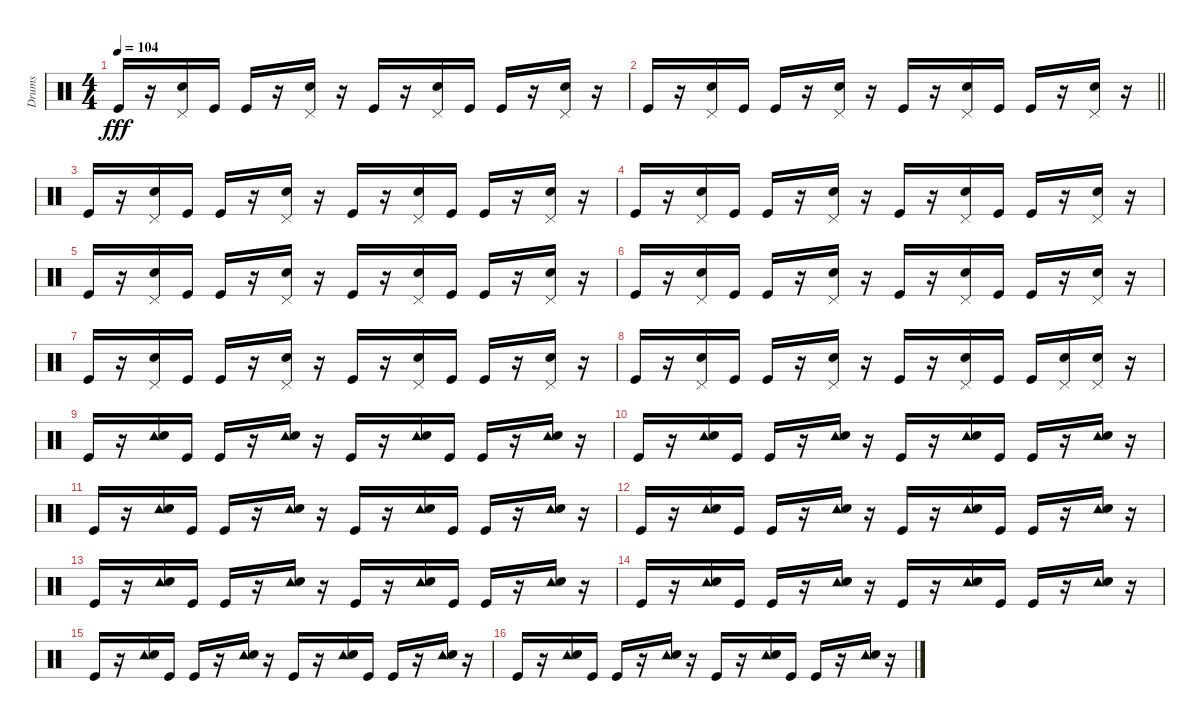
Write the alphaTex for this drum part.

\track ("Drums" "Drums") {instrument percussion}
\staff {score}
\articulation defaults
\ts (4 4)
\tempo 104
\clef neutral
\ks c "Kick (hit)".16{dy fff}
r.16 ("Pedal Hi-Hat (hit)" "Electric Snare (hit)").16 "Kick (hit)".16 "Kick (hit)".16 r.16 ("Pedal Hi-Hat (hit)" "Electric Snare (hit)").16 r.16 "Kick (hit)".16 r.16 ("Pedal Hi-Hat (hit)" "Electric Snare (hit)").16 "Kick (hit)".16 "Kick (hit)".16 r.16 ("Pedal Hi-Hat (hit)" "Electric Snare (hit)").16 r.16 |
\barLineRight lightlight "Kick (hit)".16
r.16 ("Pedal Hi-Hat (hit)" "Electric Snare (hit)").16 "Kick (hit)".16 "Kick (hit)".16 r.16 ("Pedal Hi-Hat (hit)" "Electric Snare (hit)").16 r.16 "Kick (hit)".16 r.16 ("Pedal Hi-Hat (hit)" "Electric Snare (hit)").16 "Kick (hit)".16 "Kick (hit)".16 r.16 ("Pedal Hi-Hat (hit)" "Electric Snare (hit)").16 r.16 |
"Kick (hit)".16 r.16 ("Pedal Hi-Hat (hit)" "Electric Snare (hit)").16 "Kick (hit)".16 "Kick (hit)".16 r.16 ("Pedal Hi-Hat (hit)" "Electric Snare (hit)").16 r.16 "Kick (hit)".16 r.16 ("Pedal Hi-Hat (hit)" "Electric Snare (hit)").16 "Kick (hit)".16 "Kick (hit)".16 r.16 ("Pedal Hi-Hat (hit)" "Electric Snare (hit)").16 r.16 |
"Kick (hit)".16 r.16 ("Pedal Hi-Hat (hit)" "Electric Snare (hit)").16 "Kick (hit)".16 "Kick (hit)".16 r.16 ("Pedal Hi-Hat (hit)" "Electric Snare (hit)").16 r.16 "Kick (hit)".16 r.16 ("Pedal Hi-Hat (hit)" "Electric Snare (hit)").16 "Kick (hit)".16 "Kick (hit)".16 r.16 ("Pedal Hi-Hat (hit)" "Electric Snare (hit)").16 r.16 |
"Kick (hit)".16 r.16 ("Pedal Hi-Hat (hit)" "Electric Snare (hit)").16 "Kick (hit)".16 "Kick (hit)".16 r.16 ("Pedal Hi-Hat (hit)" "Electric Snare (hit)").16 r.16 "Kick (hit)".16 r.16 ("Pedal Hi-Hat (hit)" "Electric Snare (hit)").16 "Kick (hit)".16 "Kick (hit)".16 r.16 ("Pedal Hi-Hat (hit)" "Electric Snare (hit)").16 r.16 |
"Kick (hit)".16 r.16 ("Pedal Hi-Hat (hit)" "Electric Snare (hit)").16 "Kick (hit)".16 "Kick (hit)".16 r.16 ("Pedal Hi-Hat (hit)" "Electric Snare (hit)").16 r.16 "Kick (hit)".16 r.16 ("Pedal Hi-Hat (hit)" "Electric Snare (hit)").16 "Kick (hit)".16 "Kick (hit)".16 r.16 ("Pedal Hi-Hat (hit)" "Electric Snare (hit)").16 r.16 |
"Kick (hit)".16 r.16 ("Pedal Hi-Hat (hit)" "Electric Snare (hit)").16 "Kick (hit)".16 "Kick (hit)".16 r.16 ("Pedal Hi-Hat (hit)" "Electric Snare (hit)").16 r.16 "Kick (hit)".16 r.16 ("Pedal Hi-Hat (hit)" "Electric Snare (hit)").16 "Kick (hit)".16 "Kick (hit)".16 r.16 ("Pedal Hi-Hat (hit)" "Electric Snare (hit)").16 r.16 |
"Kick (hit)".16 r.16 ("Pedal Hi-Hat (hit)" "Electric Snare (hit)").16 "Kick (hit)".16 "Kick (hit)".16 r.16 ("Pedal Hi-Hat (hit)" "Electric Snare (hit)").16 r.16 "Kick (hit)".16 r.16 ("Pedal Hi-Hat (hit)" "Electric Snare (hit)").16 "Kick (hit)".16 "Kick (hit)".16 ("Pedal Hi-Hat (hit)" "Electric Snare (hit)").16 ("Electric Snare (hit)" "Pedal Hi-Hat (hit)").16 r.16 |
"Kick (hit)".16 r.16 ("Tambourine (hit)" "Electric Snare (hit)").16 "Kick (hit)".16 "Kick (hit)".16 r.16 ("Tambourine (hit)" "Electric Snare (hit)").16 r.16 "Kick (hit)".16 r.16 ("Tambourine (hit)" "Electric Snare (hit)").16 "Kick (hit)".16 "Kick (hit)".16 r.16 ("Tambourine (hit)" "Electric Snare (hit)").16 r.16 |
"Kick (hit)".16 r.16 ("Tambourine (hit)" "Electric Snare (hit)").16 "Kick (hit)".16 "Kick (hit)".16 r.16 ("Tambourine (hit)" "Electric Snare (hit)").16 r.16 "Kick (hit)".16 r.16 ("Tambourine (hit)" "Electric Snare (hit)").16 "Kick (hit)".16 "Kick (hit)".16 r.16 ("Tambourine (hit)" "Electric Snare (hit)").16 r.16 |
"Kick (hit)".16 r.16 ("Tambourine (hit)" "Electric Snare (hit)").16 "Kick (hit)".16 "Kick (hit)".16 r.16 ("Tambourine (hit)" "Electric Snare (hit)").16 r.16 "Kick (hit)".16 r.16 ("Tambourine (hit)" "Electric Snare (hit)").16 "Kick (hit)".16 "Kick (hit)".16 r.16 ("Tambourine (hit)" "Electric Snare (hit)").16 r.16 |
"Kick (hit)".16 r.16 ("Tambourine (hit)" "Electric Snare (hit)").16 "Kick (hit)".16 "Kick (hit)".16 r.16 ("Tambourine (hit)" "Electric Snare (hit)").16 r.16 "Kick (hit)".16 r.16 ("Tambourine (hit)" "Electric Snare (hit)").16 "Kick (hit)".16 "Kick (hit)".16 r.16 ("Tambourine (hit)" "Electric Snare (hit)").16 r.16 |
"Kick (hit)".16 r.16 ("Tambourine (hit)" "Electric Snare (hit)").16 "Kick (hit)".16 "Kick (hit)".16 r.16 ("Tambourine (hit)" "Electric Snare (hit)").16 r.16 "Kick (hit)".16 r.16 ("Tambourine (hit)" "Electric Snare (hit)").16 "Kick (hit)".16 "Kick (hit)".16 r.16 ("Tambourine (hit)" "Electric Snare (hit)").16 r.16 |
"Kick (hit)".16 r.16 ("Tambourine (hit)" "Electric Snare (hit)").16 "Kick (hit)".16 "Kick (hit)".16 r.16 ("Tambourine (hit)" "Electric Snare (hit)").16 r.16 "Kick (hit)".16 r.16 ("Tambourine (hit)" "Electric Snare (hit)").16 "Kick (hit)".16 "Kick (hit)".16 r.16 ("Tambourine (hit)" "Electric Snare (hit)").16 r.16 |
"Kick (hit)".16 r.16 ("Tambourine (hit)" "Electric Snare (hit)").16 "Kick (hit)".16 "Kick (hit)".16 r.16 ("Tambourine (hit)" "Electric Snare (hit)").16 r.16 "Kick (hit)".16 r.16 ("Tambourine (hit)" "Electric Snare (hit)").16 "Kick (hit)".16 "Kick (hit)".16 r.16 ("Tambourine (hit)" "Electric Snare (hit)").16 r.16 |
"Kick (hit)".16 r.16 ("Tambourine (hit)" "Electric Snare (hit)").16 "Kick (hit)".16 "Kick (hit)".16 r.16 ("Tambourine (hit)" "Electric Snare (hit)").16 r.16 "Kick (hit)".16 r.16 ("Tambourine (hit)" "Electric Snare (hit)").16 "Kick (hit)".16 "Kick (hit)".16 r.16 ("Tambourine (hit)" "Electric Snare (hit)").16 r.16
